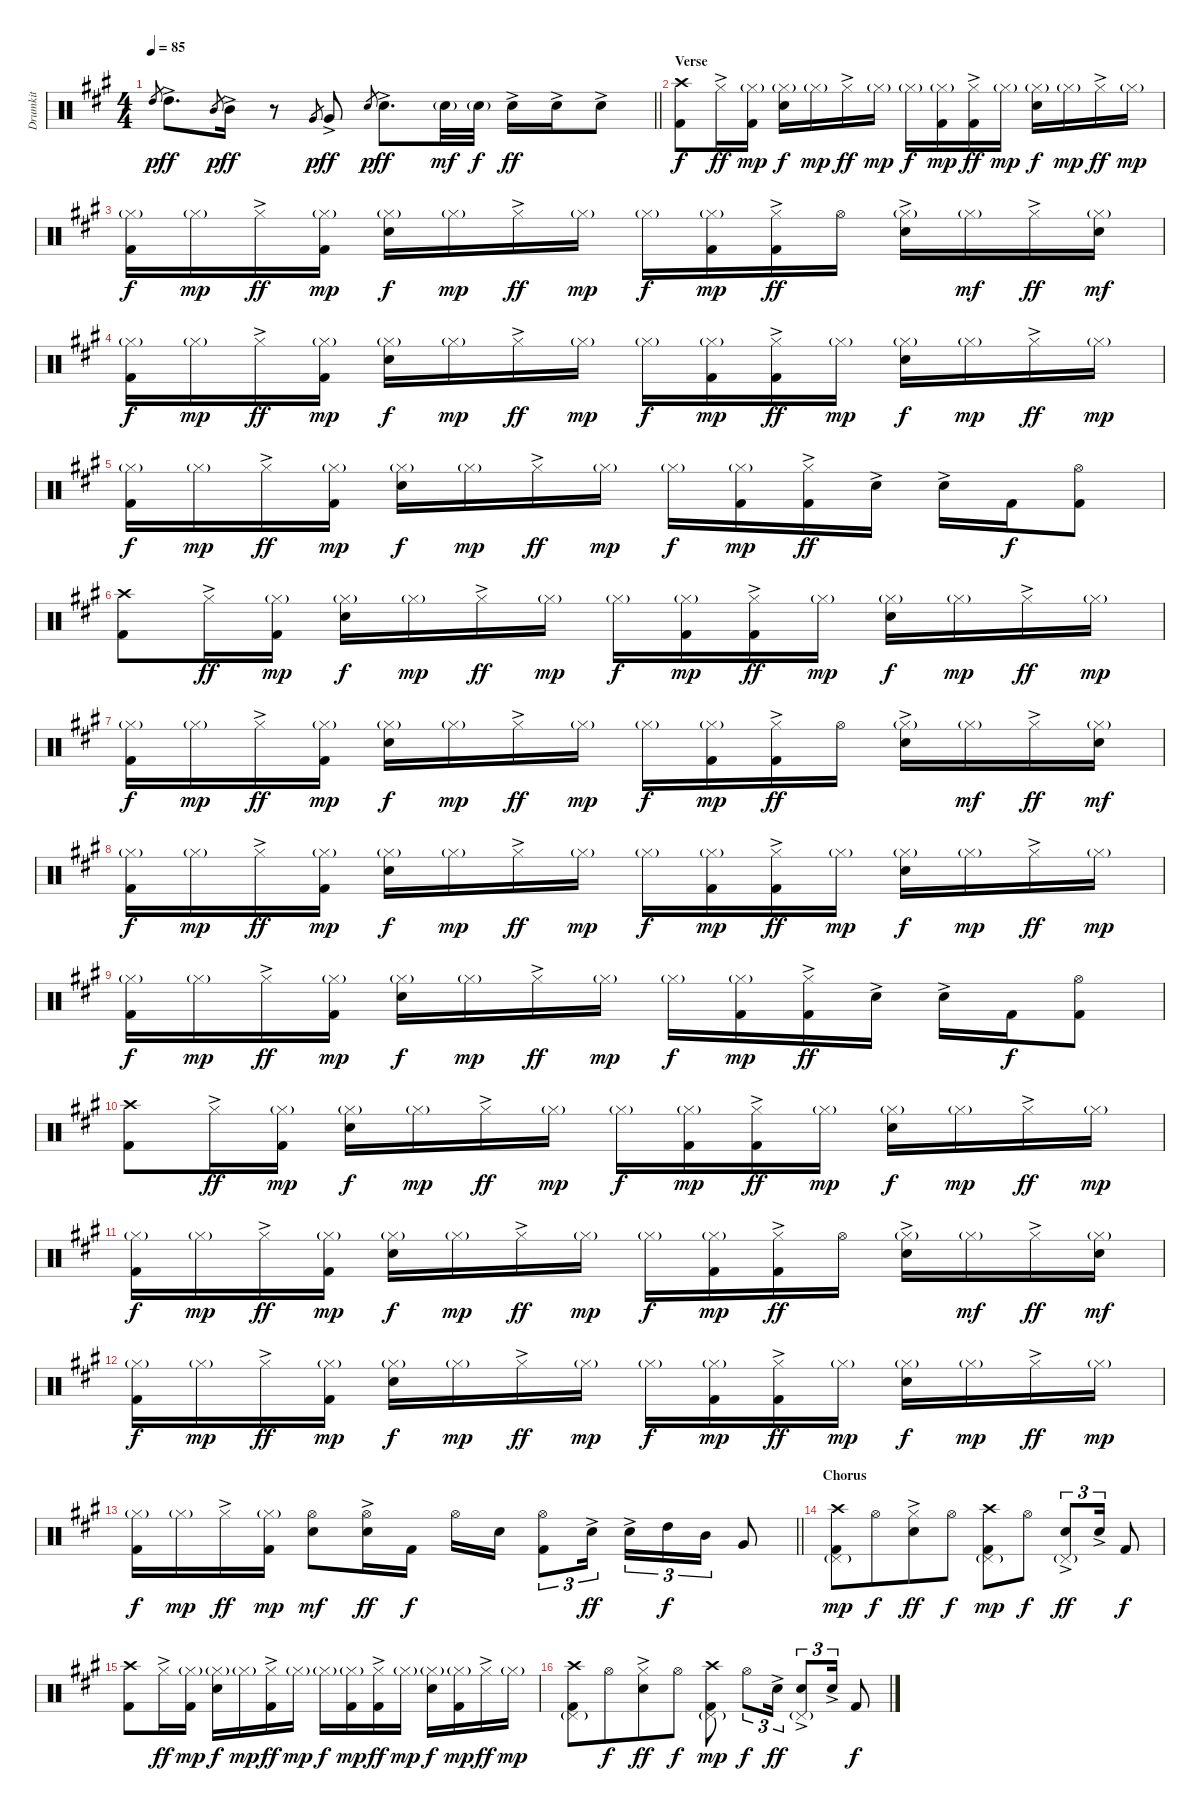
\track ("Drumkit" "Drumkit") {instrument percussion}
\staff {score}
\articulation defaults
\ts (4 4)
\tempo 85
\clef neutral
\barLineRight lightlight
\ks a "High Tom (hit)".8{gr dy p} "High Tom (hit)"{ac}.8{d dy ff} "Mid Tom (hit)".8{gr dy p} "Mid Tom (hit)"{ac}.16{dy ff}
r.8 "Very Low Tom (hit)".8{gr dy p} "Very Low Tom (hit)"{ac}.8{dy ff} "Electric Snare (hit)".8{gr dy p} "Electric Snare (hit)"{ac}.8{d dy ff} "Electric Snare (hit)"{g}.32{dy mf} "Electric Snare (hit)"{g}.32{dy f} "Electric Snare (hit)"{ac}.16{dy ff} "Electric Snare (hit)"{ac}.16 "Electric Snare (hit)"{ac}.8 |
\section ("" "Verse")
("Crash high (hit)" "Kick (hit) 2").8{dy f} "Hi-Hat (closed)"{ac}.16{dy ff} ("Hi-Hat (closed)"{g} "Kick (hit) 2").16{dy mp} ("Hi-Hat (closed)"{g} "Electric Snare (hit)").16{dy f} "Hi-Hat (closed)"{g}.16{dy mp} "Hi-Hat (closed)"{ac}.16{dy ff} "Hi-Hat (closed)"{g}.16{dy mp} "Hi-Hat (closed)"{g}.16{dy f} ("Hi-Hat (closed)"{g} "Kick (hit) 2").16{dy mp} ("Hi-Hat (closed)"{ac} "Kick (hit) 2").16{dy ff} "Hi-Hat (closed)"{g}.16{dy mp} ("Hi-Hat (closed)"{g} "Electric Snare (hit)").16{dy f} "Hi-Hat (closed)"{g}.16{dy mp} "Hi-Hat (closed)"{ac}.16{dy ff} "Hi-Hat (closed)"{g}.16{dy mp} |
("Hi-Hat (closed)"{g} "Kick (hit) 2").16{dy f} "Hi-Hat (closed)"{g}.16{dy mp} "Hi-Hat (closed)"{ac}.16{dy ff} ("Hi-Hat (closed)"{g} "Kick (hit) 2").16{dy mp} ("Hi-Hat (closed)"{g} "Electric Snare (hit)").16{dy f} "Hi-Hat (closed)"{g}.16{dy mp} "Hi-Hat (closed)"{ac}.16{dy ff} "Hi-Hat (closed)"{g}.16{dy mp} "Hi-Hat (closed)"{g}.16{dy f} ("Hi-Hat (closed)"{g} "Kick (hit) 2").16{dy mp} ("Hi-Hat (closed)"{ac} "Kick (hit) 2").16{dy ff} "Hi-Hat (open)".16 ("Hi-Hat (closed)"{g} "Electric Snare (hit)"{ac}).16 "Hi-Hat (closed)"{g}.16{dy mf} "Hi-Hat (closed)"{ac}.16{dy ff} ("Hi-Hat (closed)"{g} "Electric Snare (hit)").16{dy mf} |
("Hi-Hat (closed)"{g} "Kick (hit) 2").16{dy f} "Hi-Hat (closed)"{g}.16{dy mp} "Hi-Hat (closed)"{ac}.16{dy ff} ("Hi-Hat (closed)"{g} "Kick (hit) 2").16{dy mp} ("Hi-Hat (closed)"{g} "Electric Snare (hit)").16{dy f} "Hi-Hat (closed)"{g}.16{dy mp} "Hi-Hat (closed)"{ac}.16{dy ff} "Hi-Hat (closed)"{g}.16{dy mp} "Hi-Hat (closed)"{g}.16{dy f} ("Hi-Hat (closed)"{g} "Kick (hit) 2").16{dy mp} ("Hi-Hat (closed)"{ac} "Kick (hit) 2").16{dy ff} "Hi-Hat (closed)"{g}.16{dy mp} ("Hi-Hat (closed)"{g} "Electric Snare (hit)").16{dy f} "Hi-Hat (closed)"{g}.16{dy mp} "Hi-Hat (closed)"{ac}.16{dy ff} "Hi-Hat (closed)"{g}.16{dy mp} |
("Hi-Hat (closed)"{g} "Kick (hit) 2").16{dy f} "Hi-Hat (closed)"{g}.16{dy mp} "Hi-Hat (closed)"{ac}.16{dy ff} ("Hi-Hat (closed)"{g} "Kick (hit) 2").16{dy mp} ("Hi-Hat (closed)"{g} "Electric Snare (hit)").16{dy f} "Hi-Hat (closed)"{g}.16{dy mp} "Hi-Hat (closed)"{ac}.16{dy ff} "Hi-Hat (closed)"{g}.16{dy mp} "Hi-Hat (closed)"{g}.16{dy f} ("Hi-Hat (closed)"{g} "Kick (hit) 2").16{dy mp} ("Hi-Hat (closed)"{ac} "Kick (hit) 2").16{dy ff} "Electric Snare (hit)"{ac}.16 "Electric Snare (hit)"{ac}.16 "Kick (hit) 2".16{dy f} ("Hi-Hat (open)" "Kick (hit) 2").8 |
("Crash high (hit)" "Kick (hit) 2").8 "Hi-Hat (closed)"{ac}.16{dy ff} ("Hi-Hat (closed)"{g} "Kick (hit) 2").16{dy mp} ("Hi-Hat (closed)"{g} "Electric Snare (hit)").16{dy f} "Hi-Hat (closed)"{g}.16{dy mp} "Hi-Hat (closed)"{ac}.16{dy ff} "Hi-Hat (closed)"{g}.16{dy mp} "Hi-Hat (closed)"{g}.16{dy f} ("Hi-Hat (closed)"{g} "Kick (hit) 2").16{dy mp} ("Hi-Hat (closed)"{ac} "Kick (hit) 2").16{dy ff} "Hi-Hat (closed)"{g}.16{dy mp} ("Hi-Hat (closed)"{g} "Electric Snare (hit)").16{dy f} "Hi-Hat (closed)"{g}.16{dy mp} "Hi-Hat (closed)"{ac}.16{dy ff} "Hi-Hat (closed)"{g}.16{dy mp} |
("Hi-Hat (closed)"{g} "Kick (hit) 2").16{dy f} "Hi-Hat (closed)"{g}.16{dy mp} "Hi-Hat (closed)"{ac}.16{dy ff} ("Hi-Hat (closed)"{g} "Kick (hit) 2").16{dy mp} ("Hi-Hat (closed)"{g} "Electric Snare (hit)").16{dy f} "Hi-Hat (closed)"{g}.16{dy mp} "Hi-Hat (closed)"{ac}.16{dy ff} "Hi-Hat (closed)"{g}.16{dy mp} "Hi-Hat (closed)"{g}.16{dy f} ("Hi-Hat (closed)"{g} "Kick (hit) 2").16{dy mp} ("Hi-Hat (closed)"{ac} "Kick (hit) 2").16{dy ff} "Hi-Hat (open)".16 ("Hi-Hat (closed)"{g} "Electric Snare (hit)"{ac}).16 "Hi-Hat (closed)"{g}.16{dy mf} "Hi-Hat (closed)"{ac}.16{dy ff} ("Hi-Hat (closed)"{g} "Electric Snare (hit)").16{dy mf} |
("Hi-Hat (closed)"{g} "Kick (hit) 2").16{dy f} "Hi-Hat (closed)"{g}.16{dy mp} "Hi-Hat (closed)"{ac}.16{dy ff} ("Hi-Hat (closed)"{g} "Kick (hit) 2").16{dy mp} ("Hi-Hat (closed)"{g} "Electric Snare (hit)").16{dy f} "Hi-Hat (closed)"{g}.16{dy mp} "Hi-Hat (closed)"{ac}.16{dy ff} "Hi-Hat (closed)"{g}.16{dy mp} "Hi-Hat (closed)"{g}.16{dy f} ("Hi-Hat (closed)"{g} "Kick (hit) 2").16{dy mp} ("Hi-Hat (closed)"{ac} "Kick (hit) 2").16{dy ff} "Hi-Hat (closed)"{g}.16{dy mp} ("Hi-Hat (closed)"{g} "Electric Snare (hit)").16{dy f} "Hi-Hat (closed)"{g}.16{dy mp} "Hi-Hat (closed)"{ac}.16{dy ff} "Hi-Hat (closed)"{g}.16{dy mp} |
("Hi-Hat (closed)"{g} "Kick (hit) 2").16{dy f} "Hi-Hat (closed)"{g}.16{dy mp} "Hi-Hat (closed)"{ac}.16{dy ff} ("Hi-Hat (closed)"{g} "Kick (hit) 2").16{dy mp} ("Hi-Hat (closed)"{g} "Electric Snare (hit)").16{dy f} "Hi-Hat (closed)"{g}.16{dy mp} "Hi-Hat (closed)"{ac}.16{dy ff} "Hi-Hat (closed)"{g}.16{dy mp} "Hi-Hat (closed)"{g}.16{dy f} ("Hi-Hat (closed)"{g} "Kick (hit) 2").16{dy mp} ("Hi-Hat (closed)"{ac} "Kick (hit) 2").16{dy ff} "Electric Snare (hit)"{ac}.16 "Electric Snare (hit)"{ac}.16 "Kick (hit) 2".16{dy f} ("Hi-Hat (open)" "Kick (hit) 2").8 |
("Crash high (hit)" "Kick (hit) 2").8 "Hi-Hat (closed)"{ac}.16{dy ff} ("Hi-Hat (closed)"{g} "Kick (hit) 2").16{dy mp} ("Hi-Hat (closed)"{g} "Electric Snare (hit)").16{dy f} "Hi-Hat (closed)"{g}.16{dy mp} "Hi-Hat (closed)"{ac}.16{dy ff} "Hi-Hat (closed)"{g}.16{dy mp} "Hi-Hat (closed)"{g}.16{dy f} ("Hi-Hat (closed)"{g} "Kick (hit) 2").16{dy mp} ("Hi-Hat (closed)"{ac} "Kick (hit) 2").16{dy ff} "Hi-Hat (closed)"{g}.16{dy mp} ("Hi-Hat (closed)"{g} "Electric Snare (hit)").16{dy f} "Hi-Hat (closed)"{g}.16{dy mp} "Hi-Hat (closed)"{ac}.16{dy ff} "Hi-Hat (closed)"{g}.16{dy mp} |
("Hi-Hat (closed)"{g} "Kick (hit) 2").16{dy f} "Hi-Hat (closed)"{g}.16{dy mp} "Hi-Hat (closed)"{ac}.16{dy ff} ("Hi-Hat (closed)"{g} "Kick (hit) 2").16{dy mp} ("Hi-Hat (closed)"{g} "Electric Snare (hit)").16{dy f} "Hi-Hat (closed)"{g}.16{dy mp} "Hi-Hat (closed)"{ac}.16{dy ff} "Hi-Hat (closed)"{g}.16{dy mp} "Hi-Hat (closed)"{g}.16{dy f} ("Hi-Hat (closed)"{g} "Kick (hit) 2").16{dy mp} ("Hi-Hat (closed)"{ac} "Kick (hit) 2").16{dy ff} "Hi-Hat (open)".16 ("Hi-Hat (closed)"{g} "Electric Snare (hit)"{ac}).16 "Hi-Hat (closed)"{g}.16{dy mf} "Hi-Hat (closed)"{ac}.16{dy ff} ("Hi-Hat (closed)"{g} "Electric Snare (hit)").16{dy mf} |
("Hi-Hat (closed)"{g} "Kick (hit) 2").16{dy f} "Hi-Hat (closed)"{g}.16{dy mp} "Hi-Hat (closed)"{ac}.16{dy ff} ("Hi-Hat (closed)"{g} "Kick (hit) 2").16{dy mp} ("Hi-Hat (closed)"{g} "Electric Snare (hit)").16{dy f} "Hi-Hat (closed)"{g}.16{dy mp} "Hi-Hat (closed)"{ac}.16{dy ff} "Hi-Hat (closed)"{g}.16{dy mp} "Hi-Hat (closed)"{g}.16{dy f} ("Hi-Hat (closed)"{g} "Kick (hit) 2").16{dy mp} ("Hi-Hat (closed)"{ac} "Kick (hit) 2").16{dy ff} "Hi-Hat (closed)"{g}.16{dy mp} ("Hi-Hat (closed)"{g} "Electric Snare (hit)").16{dy f} "Hi-Hat (closed)"{g}.16{dy mp} "Hi-Hat (closed)"{ac}.16{dy ff} "Hi-Hat (closed)"{g}.16{dy mp} |
\barLineRight lightlight
("Hi-Hat (closed)"{g} "Kick (hit) 2").16{dy f} "Hi-Hat (closed)"{g}.16{dy mp} "Hi-Hat (closed)"{ac}.16{dy ff} ("Hi-Hat (closed)"{g} "Kick (hit) 2").16{dy mp} ("Hi-Hat (open)" "Electric Snare (hit)").8{dy mf} ("Hi-Hat (open)" "Electric Snare (hit)"{ac}).16{dy ff} "Kick (hit) 2".16{dy f} "Hi-Hat (open)".16 "Electric Snare (hit)".16 ("Hi-Hat (open)" "Kick (hit) 2").8{tu (3 2)} "Electric Snare (hit)"{ac}.16{tu (3 2) dy ff} "Electric Snare (hit)"{ac}.16{tu (3 2)} "High Tom (hit)".16{tu (3 2) dy f} "Mid Tom (hit)".16{tu (3 2)} "Very Low Tom (hit)".8 |
\section ("" "Chorus")
("Crash high (hit)" "Pedal Hi-Hat (hit)"{g} "Kick (hit) 2").8{dy mp} "Hi-Hat (open)".8{dy f beam merge} ("Hi-Hat (closed)" "Electric Snare (hit)"{ac}).8{dy ff} "Hi-Hat (open)".8{dy f} ("Crash high (hit)" "Pedal Hi-Hat (hit)"{g} "Kick (hit) 2").8{dy mp} "Hi-Hat (open)".8{dy f} ("Pedal Hi-Hat (hit)"{g} "Electric Snare (hit)"{ac}).8{tu (3 2) dy ff} "Electric Snare (hit)"{ac}.16{tu (3 2)} "Kick (hit) 2".8{dy f} |
("Crash high (hit)" "Kick (hit) 2").8 "Hi-Hat (closed)"{ac}.16{dy ff} ("Hi-Hat (closed)"{g} "Kick (hit) 2").16{dy mp} ("Hi-Hat (closed)"{g} "Electric Snare (hit)").16{dy f} "Hi-Hat (closed)"{g}.16{dy mp} ("Hi-Hat (closed)"{ac} "Kick (hit) 2").16{dy ff} "Hi-Hat (closed)"{g}.16{dy mp} "Hi-Hat (closed)"{g}.16{dy f} ("Hi-Hat (closed)"{g} "Kick (hit) 2").16{dy mp} ("Hi-Hat (closed)"{ac} "Kick (hit) 2").16{dy ff} "Hi-Hat (closed)"{g}.16{dy mp} ("Hi-Hat (closed)"{g} "Electric Snare (hit)").16{dy f} ("Hi-Hat (closed)"{g} "Kick (hit) 2").16{dy mp} "Hi-Hat (closed)"{ac}.16{dy ff} "Hi-Hat (closed)"{g}.16{dy mp} |
("Crash high (hit)" "Pedal Hi-Hat (hit)"{g} "Kick (hit) 2").8 "Hi-Hat (open)".8{dy f beam merge} ("Hi-Hat (closed)" "Electric Snare (hit)"{ac}).8{dy ff} "Hi-Hat (open)".8{dy f} ("Crash high (hit)" "Pedal Hi-Hat (hit)"{g} "Kick (hit) 2").8{dy mp} "Hi-Hat (open)".8{tu (3 2) dy f} "Electric Snare (hit)"{ac}.16{tu (3 2) dy ff} ("Pedal Hi-Hat (hit)"{g} "Electric Snare (hit)"{ac}).8{tu (3 2)} "Electric Snare (hit)"{ac}.16{tu (3 2)} "Kick (hit) 2".8{dy f}
